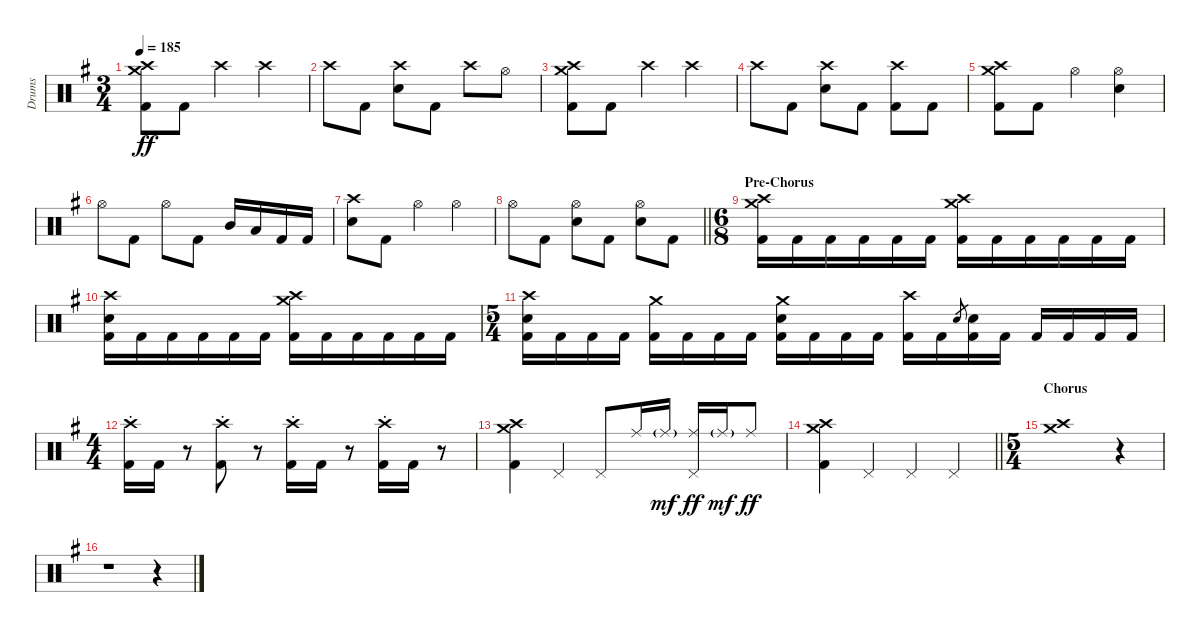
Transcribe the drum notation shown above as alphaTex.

\track ("Drums" "Drums") {instrument percussion}
\staff {score}
\articulation defaults
\ts (3 4)
\tempo 185
\clef neutral
\ks g
("Crash medium (hit)" "Crash high (hit)" "Kick (hit) 2").8{dy ff} "Kick (hit) 2".8 "Crash high (hit)".4 "Crash high (hit)".4 |
"Crash high (hit)".8 "Kick (hit) 2".8 ("Crash high (hit)" "Electric Snare (hit)").8 "Kick (hit) 2".8 "Crash high (hit)".8 "Hi-Hat (open)".8 |
("Crash medium (hit)" "Crash high (hit)" "Kick (hit) 2").8 "Kick (hit) 2".8 "Crash high (hit)".4 "Crash high (hit)".4 |
"Crash high (hit)".8 "Kick (hit) 2".8 ("Crash high (hit)" "Electric Snare (hit)").8 "Kick (hit) 2".8 ("Crash high (hit)" "Kick (hit) 2").8 "Kick (hit) 2".8 |
("Crash medium (hit)" "Crash high (hit)" "Kick (hit) 2").8 "Kick (hit) 2".8 "Hi-Hat (open)".4 ("Hi-Hat (open)" "Electric Snare (hit)").4 |
"Hi-Hat (open)".8 "Kick (hit) 2".8 "Hi-Hat (open)".8 "Kick (hit) 2".8 "Mid Tom (hit)".16 "Low Tom (hit)".16 "Kick (hit) 2".16 "Kick (hit) 2".16 |
("Crash high (hit)" "Electric Snare (hit)").8 "Kick (hit) 2".8 "Hi-Hat (open)".4 "Hi-Hat (open)".4 |
\barLineRight lightlight "Hi-Hat (open)".8 "Kick (hit) 2".8
("Hi-Hat (open)" "Electric Snare (hit)").8 "Kick (hit) 2".8 ("Hi-Hat (open)" "Electric Snare (hit)").8 "Kick (hit) 2".8 |
\ts (6 8)
\section ("" "Pre-Chorus")
("Crash medium (hit)" "Crash high (hit)" "Kick (hit) 2").16 "Kick (hit) 2".16 "Kick (hit) 2".16 "Kick (hit) 2".16 "Kick (hit) 2".16 "Kick (hit) 2".16 ("Crash medium (hit)" "Crash high (hit)" "Kick (hit) 2").16 "Kick (hit) 2".16 "Kick (hit) 2".16 "Kick (hit) 2".16 "Kick (hit) 2".16 "Kick (hit) 2".16 |
("Crash high (hit)" "Electric Snare (hit)" "Kick (hit) 2").16 "Kick (hit) 2".16 "Kick (hit) 2".16 "Kick (hit) 2".16 "Kick (hit) 2".16 "Kick (hit) 2".16 ("Crash medium (hit)" "Crash high (hit)" "Kick (hit) 2").16 "Kick (hit) 2".16 "Kick (hit) 2".16 "Kick (hit) 2".16 "Kick (hit) 2".16 "Kick (hit) 2".16 |
\ts (5 4)
("Crash high (hit)" "Electric Snare (hit)" "Kick (hit) 2").16 "Kick (hit) 2".16 "Kick (hit) 2".16 "Kick (hit) 2".16 ("Crash medium (hit)" "Kick (hit) 2").16 "Kick (hit) 2".16 "Kick (hit) 2".16 "Kick (hit) 2".16 ("Crash medium (hit)" "Electric Snare (hit)" "Kick (hit) 2").16 "Kick (hit) 2".16 "Kick (hit) 2".16 "Kick (hit) 2".16 ("Crash high (hit)" "Kick (hit) 2").16 "Kick (hit) 2".16 "Electric Snare (hit)".8{gr} ("Electric Snare (hit)" "Kick (hit) 2").16 "Kick (hit) 2".16 "Kick (hit) 2".16 "Kick (hit) 2".16 "Kick (hit) 2".16 "Kick (hit) 2".16 |
\ts (4 4)
("Crash high (hit)"{st} "Kick (hit) 2").16 "Kick (hit) 2".16 r.8{volume 0} ("Crash high (hit)"{st} "Kick (hit) 2").8{volume 14} r.8{volume 0} ("Crash high (hit)"{st} "Kick (hit) 2").16{volume 14} "Kick (hit) 2".16 r.8{volume 0} ("Crash high (hit)"{st} "Kick (hit) 2").16{volume 14} "Kick (hit) 2".16 r.8{volume 0} |
("Crash medium (hit)" "Crash high (hit)" "Kick (hit) 2").4{volume 14} "Pedal Hi-Hat (hit)".4 "Pedal Hi-Hat (hit)".8 "Ride (middle)".16 "Ride (middle)"{g}.16{dy mf} ("Ride (middle)" "Pedal Hi-Hat (hit)").16{dy ff} "Ride (middle)"{g}.16{dy mf} "Ride (middle)".8{dy ff} |
\barLineRight lightlight
("Crash medium (hit)" "Crash high (hit)" "Kick (hit) 2").4 "Pedal Hi-Hat (hit)".4 "Pedal Hi-Hat (hit)".4 "Pedal Hi-Hat (hit)".4 |
\ts (5 4)
\section ("" "Chorus")
("Crash medium (hit)" "Crash high (hit)").1 r.4 |
r.1 r.4
